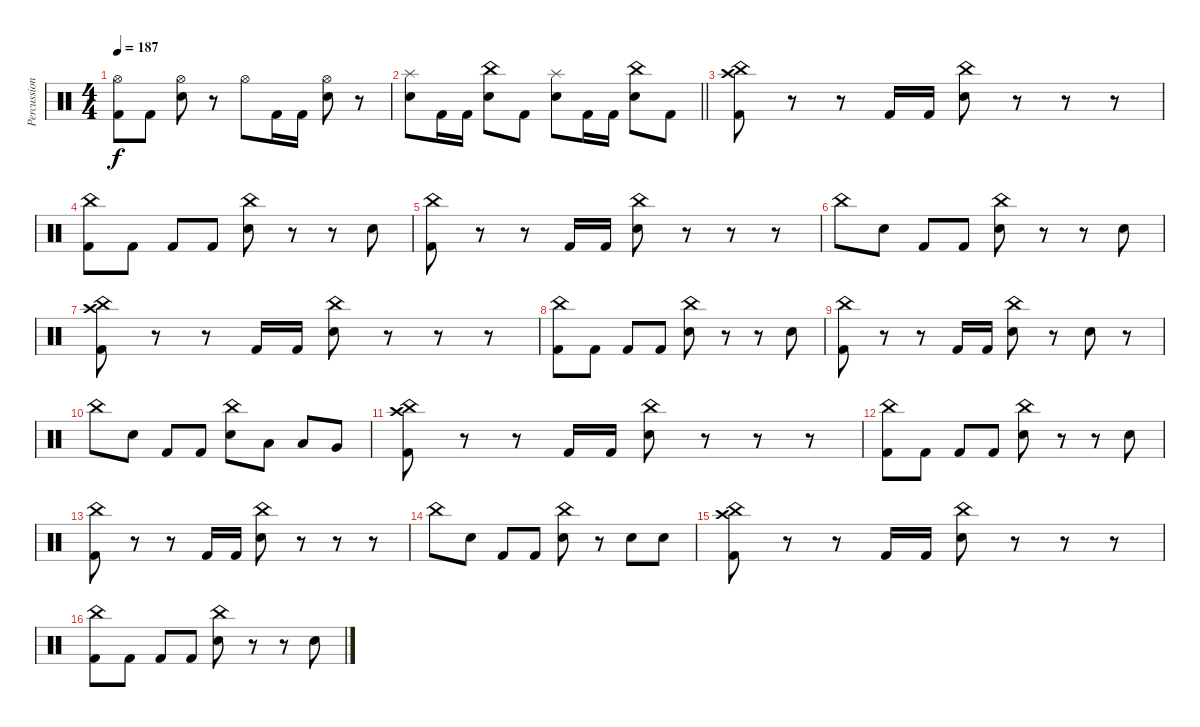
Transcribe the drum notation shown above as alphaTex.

\track ("Percussion" "Percussion") {instrument percussion}
\staff {score}
\articulation defaults
\ts (4 4)
\tempo 187
\clef neutral
\ks c
("Hi-Hat (open)" "Kick (hit) 2").8{dy f} "Kick (hit) 2".8 ("Hi-Hat (open)" "Snare (hit) 2").8 r.8 "Hi-Hat (open)".8 "Kick (hit) 2".16 "Kick (hit) 2".16 ("Hi-Hat (open)" "Snare (hit) 2").8 r.8 |
\barLineRight lightlight
("Splash (hit)" "Snare (hit) 2").8 "Kick (hit) 2".16 "Kick (hit) 2".16 ("China (hit)" "Snare (hit) 2").8 "Kick (hit) 2".8 ("Splash (hit)" "Snare (hit) 2").8 "Kick (hit) 2".16 "Kick (hit) 2".16 ("China (hit)" "Snare (hit) 2").8 "Kick (hit) 2".8 |
\section ("" "")
("China (hit)" "Crash high (hit)" "Kick (hit) 2").8 r.8 r.8 "Kick (hit) 2".16 "Kick (hit) 2".16 ("China (hit)" "Snare (hit) 2").8 r.8 r.8 r.8 |
("China (hit)" "Kick (hit) 2").8 "Kick (hit) 2".8 "Kick (hit) 2".8 "Kick (hit) 2".8 ("China (hit)" "Snare (hit) 2").8 r.8 r.8 "Snare (hit) 2".8 |
("China (hit)" "Kick (hit) 2").8 r.8 r.8 "Kick (hit) 2".16 "Kick (hit) 2".16 ("China (hit)" "Snare (hit) 2").8 r.8 r.8 r.8 |
"China (hit)".8 "Snare (hit) 2".8 "Kick (hit) 2".8 "Kick (hit) 2".8 ("China (hit)" "Snare (hit) 2").8 r.8 r.8 "Snare (hit) 2".8 |
("China (hit)" "Crash high (hit)" "Kick (hit) 2").8 r.8 r.8 "Kick (hit) 2".16 "Kick (hit) 2".16 ("China (hit)" "Snare (hit) 2").8 r.8 r.8 r.8 |
("China (hit)" "Kick (hit) 2").8 "Kick (hit) 2".8 "Kick (hit) 2".8 "Kick (hit) 2".8 ("China (hit)" "Snare (hit) 2").8 r.8 r.8 "Snare (hit) 2".8 |
("China (hit)" "Kick (hit) 2").8 r.8 r.8 "Kick (hit) 2".16 "Kick (hit) 2".16 ("China (hit)" "Snare (hit) 2").8 r.8 "Snare (hit) 2".8 r.8 |
"China (hit)".8 "Snare (hit) 2".8 "Kick (hit) 2".8 "Kick (hit) 2".8 ("China (hit)" "Snare (hit) 2").8 "Low Tom (hit)".8 "Low Tom (hit)".8 "Very Low Tom (hit)".8 |
("China (hit)" "Crash high (hit)" "Kick (hit) 2").8 r.8 r.8 "Kick (hit) 2".16 "Kick (hit) 2".16 ("China (hit)" "Snare (hit) 2").8 r.8 r.8 r.8 |
("China (hit)" "Kick (hit) 2").8 "Kick (hit) 2".8 "Kick (hit) 2".8 "Kick (hit) 2".8 ("China (hit)" "Snare (hit) 2").8 r.8 r.8 "Snare (hit) 2".8 |
("China (hit)" "Kick (hit) 2").8 r.8 r.8 "Kick (hit) 2".16 "Kick (hit) 2".16 ("China (hit)" "Snare (hit) 2").8 r.8 r.8 r.8 |
"China (hit)".8 "Snare (hit) 2".8 "Kick (hit) 2".8 "Kick (hit) 2".8 ("China (hit)" "Snare (hit) 2").8 r.8 "Snare (hit) 2".8 "Snare (hit) 2".8 |
("China (hit)" "Crash high (hit)" "Kick (hit) 2").8 r.8 r.8 "Kick (hit) 2".16 "Kick (hit) 2".16 ("China (hit)" "Snare (hit) 2").8 r.8 r.8 r.8 |
("China (hit)" "Kick (hit) 2").8 "Kick (hit) 2".8 "Kick (hit) 2".8 "Kick (hit) 2".8 ("China (hit)" "Snare (hit) 2").8 r.8 r.8 "Snare (hit) 2".8
